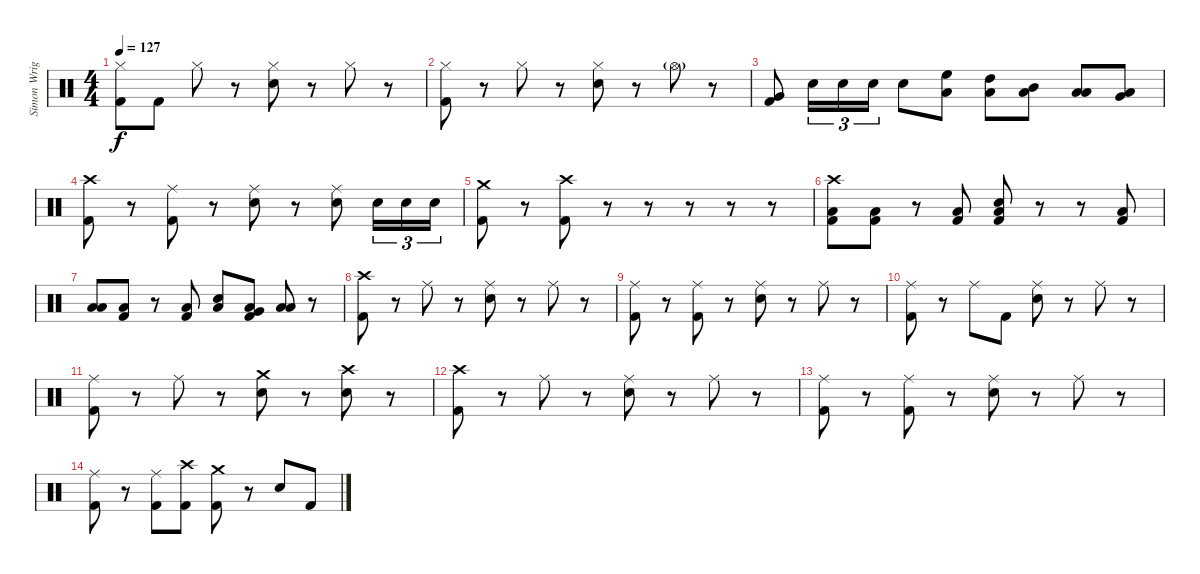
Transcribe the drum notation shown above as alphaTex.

\track ("Simon Wright" "Simon Wrig") {instrument percussion}
\staff {score}
\articulation defaults
\ts (4 4)
\tempo 127
\clef neutral
\ks c
("Hi-Hat (closed)" "Kick (hit) 2").8{dy f} "Kick (hit) 2".8 "Hi-Hat (closed)".8 r.8 ("Hi-Hat (closed)" "Snare (hit) 2").8 r.8 "Hi-Hat (closed)".8 r.8 |
("Hi-Hat (closed)" "Kick (hit) 2").8 r.8 "Hi-Hat (closed)".8 r.8 ("Hi-Hat (closed)" "Snare (hit) 2").8 r.8 "Hi-Hat (open)"{g}.8 r.8 |
("Very Low Tom (hit)" "Kick (hit) 2").8 "Snare (hit) 2".16{tu (3 2)} "Snare (hit) 2".16{tu (3 2)} "Snare (hit) 2".16{tu (3 2)} "Snare (hit) 2".8 ("High Floor Tom (hit)" "Low Floor Tom (hit)").8 ("High Tom (hit)" "Low Floor Tom (hit)").8 ("Mid Tom (hit)" "Low Floor Tom (hit)").8 ("Low Tom (hit)" "Low Floor Tom (hit)").8 ("Very Low Tom (hit)" "Low Floor Tom (hit)").8 |
("Crash high (hit)" "Kick (hit) 2").8 r.8 ("Ride (middle)" "Kick (hit) 2").8 r.8 ("Ride (middle)" "Snare (hit) 2").8 r.8 ("Ride (middle)" "Snare (hit) 2").8 "Snare (hit) 2".16{tu (3 2)} "Snare (hit) 2".16{tu (3 2)} "Snare (hit) 2".16{tu (3 2)} |
("Crash medium (hit)" "Kick (hit) 2").8 r.8 ("Crash high (hit)" "Kick (hit) 2").8 r.8 r.8 r.8 r.8 r.8 |
("Crash high (hit)" "Low Floor Tom (hit)" "Kick (hit) 2").8 ("Low Floor Tom (hit)" "Kick (hit) 2").8 r.8 ("Low Floor Tom (hit)" "Kick (hit) 2").8 ("Low Tom (hit)" "Snare (hit) 2" "Kick (hit) 2").8 r.8 r.8 ("Low Floor Tom (hit)" "Kick (hit) 2").8 |
("Low Tom (hit)" "Low Floor Tom (hit)").8{bu 240} ("Low Floor Tom (hit)" "Kick (hit) 2").8 r.8 ("Low Floor Tom (hit)" "Kick (hit) 2").8 ("Low Tom (hit)" "Snare (hit) 2").8 ("Low Tom (hit)" "Very Low Tom (hit)" "Kick (hit) 2").8 ("Low Tom (hit)" "Low Floor Tom (hit)").8 r.8 |
("Crash high (hit)" "Kick (hit) 2").8 r.8 "Ride (middle)".8 r.8 ("Ride (middle)" "Snare (hit) 2").8 r.8 "Ride (middle)".8 r.8 |
("Ride (middle)" "Kick (hit) 2").8 r.8 ("Ride (middle)" "Kick (hit) 2").8 r.8 ("Ride (middle)" "Snare (hit) 2").8 r.8 "Ride (middle)".8 r.8 |
("Ride (middle)" "Kick (hit) 2").8 r.8 "Ride (middle)".8 "Kick (hit) 2".8 ("Ride (middle)" "Snare (hit) 2").8 r.8 "Ride (middle)".8 r.8 |
("Ride (middle)" "Kick (hit) 2").8 r.8 "Ride (middle)".8 r.8 ("Crash medium (hit)" "Snare (hit) 2").8 r.8 ("Crash high (hit)" "Snare (hit) 2").8 r.8 |
("Crash high (hit)" "Kick (hit) 2").8 r.8 "Ride (middle)".8 r.8 ("Ride (middle)" "Snare (hit) 2").8 r.8 "Ride (middle)".8 r.8 |
("Ride (middle)" "Kick (hit) 2").8 r.8 ("Ride (middle)" "Kick (hit) 2").8 r.8 ("Ride (middle)" "Snare (hit) 2").8 r.8 "Ride (middle)".8 r.8 |
("Ride (middle)" "Kick (hit) 2").8 r.8 ("Ride (middle)" "Kick (hit) 2").8 ("Crash high (hit)" "Kick (hit) 2").8 ("Crash medium (hit)" "Kick (hit) 2").8 r.8 "Snare (hit) 2".8 "Kick (hit) 2".8
